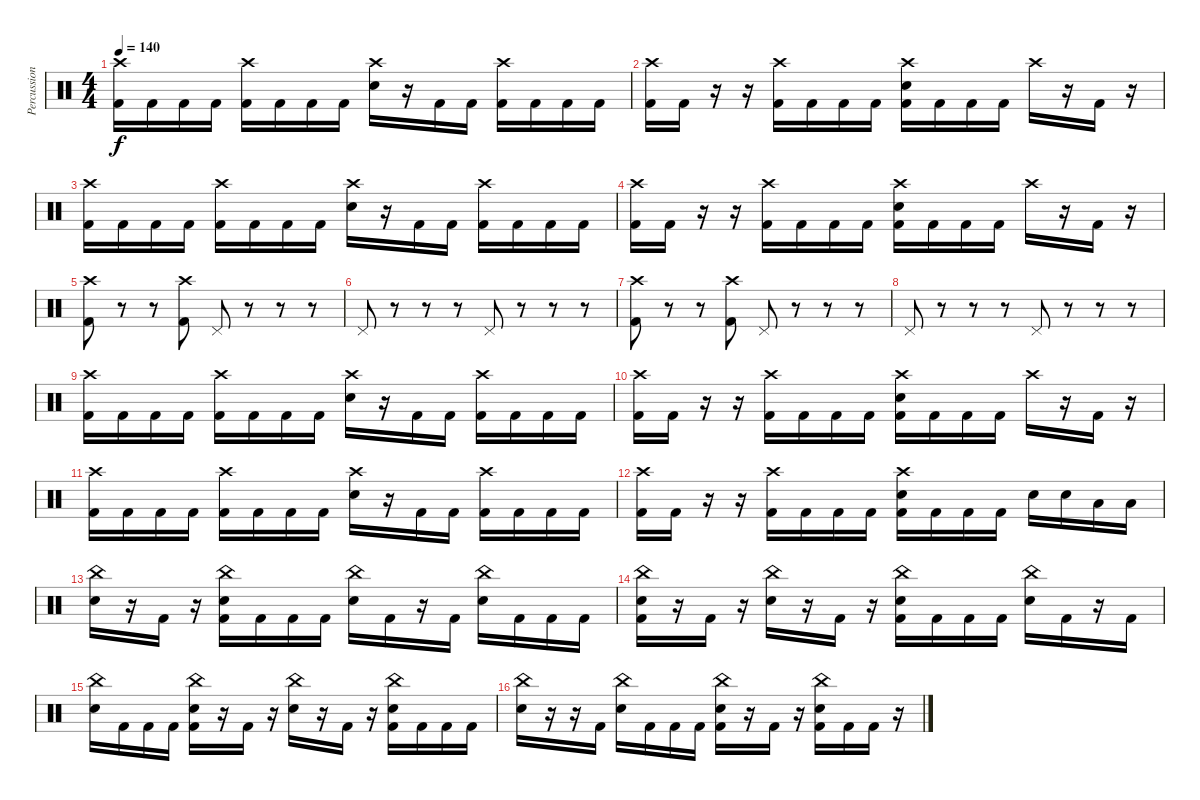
\track ("Percussion" "Percussion") {instrument percussion}
\staff {score}
\articulation defaults
\ts (4 4)
\tempo 140
\clef neutral
\ks c
("Crash high (hit)" "Kick (hit) 2").16{dy f} "Kick (hit) 2".16 "Kick (hit) 2".16 "Kick (hit) 2".16 ("Crash high (hit)" "Kick (hit) 2").16 "Kick (hit) 2".16 "Kick (hit) 2".16 "Kick (hit) 2".16 ("Crash high (hit)" "Electric Snare (hit)").16 r.16 "Kick (hit) 2".16 "Kick (hit) 2".16 ("Crash high (hit)" "Kick (hit) 2").16 "Kick (hit) 2".16 "Kick (hit) 2".16 "Kick (hit) 2".16 |
("Crash high (hit)" "Kick (hit) 2").16 "Kick (hit) 2".16 r.16 r.16 ("Crash high (hit)" "Kick (hit) 2").16 "Kick (hit) 2".16 "Kick (hit) 2".16 "Kick (hit) 2".16 ("Crash high (hit)" "Electric Snare (hit)" "Kick (hit) 2").16 "Kick (hit) 2".16 "Kick (hit) 2".16 "Kick (hit) 2".16 "Crash high (hit)".16 r.16 "Kick (hit) 2".16 r.16 |
("Crash high (hit)" "Kick (hit) 2").16 "Kick (hit) 2".16 "Kick (hit) 2".16 "Kick (hit) 2".16 ("Crash high (hit)" "Kick (hit) 2").16 "Kick (hit) 2".16 "Kick (hit) 2".16 "Kick (hit) 2".16 ("Crash high (hit)" "Electric Snare (hit)").16 r.16 "Kick (hit) 2".16 "Kick (hit) 2".16 ("Crash high (hit)" "Kick (hit) 2").16 "Kick (hit) 2".16 "Kick (hit) 2".16 "Kick (hit) 2".16 |
("Crash high (hit)" "Kick (hit) 2").16 "Kick (hit) 2".16 r.16 r.16 ("Crash high (hit)" "Kick (hit) 2").16 "Kick (hit) 2".16 "Kick (hit) 2".16 "Kick (hit) 2".16 ("Crash high (hit)" "Electric Snare (hit)" "Kick (hit) 2").16 "Kick (hit) 2".16 "Kick (hit) 2".16 "Kick (hit) 2".16 "Crash high (hit)".16 r.16 "Kick (hit) 2".16 r.16 |
("Crash high (hit)" "Kick (hit) 2").8 r.8 r.8 ("Crash high (hit)" "Kick (hit) 2").8 "Pedal Hi-Hat (hit)".8 r.8 r.8 r.8 |
"Pedal Hi-Hat (hit)".8 r.8 r.8 r.8 "Pedal Hi-Hat (hit)".8 r.8 r.8 r.8 |
("Crash high (hit)" "Kick (hit) 2").8 r.8 r.8 ("Crash high (hit)" "Kick (hit) 2").8 "Pedal Hi-Hat (hit)".8 r.8 r.8 r.8 |
"Pedal Hi-Hat (hit)".8 r.8 r.8 r.8 "Pedal Hi-Hat (hit)".8 r.8 r.8 r.8 |
("Crash high (hit)" "Kick (hit) 2").16 "Kick (hit) 2".16 "Kick (hit) 2".16 "Kick (hit) 2".16 ("Crash high (hit)" "Kick (hit) 2").16 "Kick (hit) 2".16 "Kick (hit) 2".16 "Kick (hit) 2".16 ("Crash high (hit)" "Electric Snare (hit)").16 r.16 "Kick (hit) 2".16 "Kick (hit) 2".16 ("Crash high (hit)" "Kick (hit) 2").16 "Kick (hit) 2".16 "Kick (hit) 2".16 "Kick (hit) 2".16 |
("Crash high (hit)" "Kick (hit) 2").16 "Kick (hit) 2".16 r.16 r.16 ("Crash high (hit)" "Kick (hit) 2").16 "Kick (hit) 2".16 "Kick (hit) 2".16 "Kick (hit) 2".16 ("Crash high (hit)" "Electric Snare (hit)" "Kick (hit) 2").16 "Kick (hit) 2".16 "Kick (hit) 2".16 "Kick (hit) 2".16 "Crash high (hit)".16 r.16 "Kick (hit) 2".16 r.16 |
("Crash high (hit)" "Kick (hit) 2").16 "Kick (hit) 2".16 "Kick (hit) 2".16 "Kick (hit) 2".16 ("Crash high (hit)" "Kick (hit) 2").16 "Kick (hit) 2".16 "Kick (hit) 2".16 "Kick (hit) 2".16 ("Crash high (hit)" "Electric Snare (hit)").16 r.16 "Kick (hit) 2".16 "Kick (hit) 2".16 ("Crash high (hit)" "Kick (hit) 2").16 "Kick (hit) 2".16 "Kick (hit) 2".16 "Kick (hit) 2".16 |
("Crash high (hit)" "Kick (hit) 2").16 "Kick (hit) 2".16 r.16 r.16 ("Crash high (hit)" "Kick (hit) 2").16 "Kick (hit) 2".16 "Kick (hit) 2".16 "Kick (hit) 2".16 ("Crash high (hit)" "Electric Snare (hit)" "Kick (hit) 2").16 "Kick (hit) 2".16 "Kick (hit) 2".16 "Kick (hit) 2".16 "Electric Snare (hit)".16 "Electric Snare (hit)".16 "Low Tom (hit)".16 "Low Tom (hit)".16 |
("China (hit)" "Electric Snare (hit)").16 r.16 "Kick (hit) 2".16 r.16 ("China (hit)" "Electric Snare (hit)" "Kick (hit) 2").16 "Kick (hit) 2".16 "Kick (hit) 2".16 "Kick (hit) 2".16 ("China (hit)" "Electric Snare (hit)").16 "Kick (hit) 2".16 r.16 "Kick (hit) 2".16 ("China (hit)" "Electric Snare (hit)").16 "Kick (hit) 2".16 "Kick (hit) 2".16 "Kick (hit) 2".16 |
("China (hit)" "Electric Snare (hit)" "Kick (hit) 2").16 r.16 "Kick (hit) 2".16 r.16 ("China (hit)" "Electric Snare (hit)").16 r.16 "Kick (hit) 2".16 r.16 ("China (hit)" "Electric Snare (hit)" "Kick (hit) 2").16 "Kick (hit) 2".16 "Kick (hit) 2".16 "Kick (hit) 2".16 ("China (hit)" "Electric Snare (hit)").16 "Kick (hit) 2".16 r.16 "Kick (hit) 2".16 |
("China (hit)" "Electric Snare (hit)").16 "Kick (hit) 2".16 "Kick (hit) 2".16 "Kick (hit) 2".16 ("China (hit)" "Electric Snare (hit)" "Kick (hit) 2").16 r.16 "Kick (hit) 2".16 r.16 ("China (hit)" "Electric Snare (hit)").16 r.16 "Kick (hit) 2".16 r.16 ("China (hit)" "Electric Snare (hit)" "Kick (hit) 2").16 "Kick (hit) 2".16 "Kick (hit) 2".16 "Kick (hit) 2".16 |
("China (hit)" "Electric Snare (hit)").16 r.16 r.16 "Kick (hit) 2".16 ("China (hit)" "Electric Snare (hit)").16 "Kick (hit) 2".16 "Kick (hit) 2".16 "Kick (hit) 2".16 ("China (hit)" "Electric Snare (hit)" "Kick (hit) 2").16 r.16 "Kick (hit) 2".16 r.16 ("China (hit)" "Electric Snare (hit)" "Kick (hit) 2").16 "Kick (hit) 2".16 "Kick (hit) 2".16 r.16
